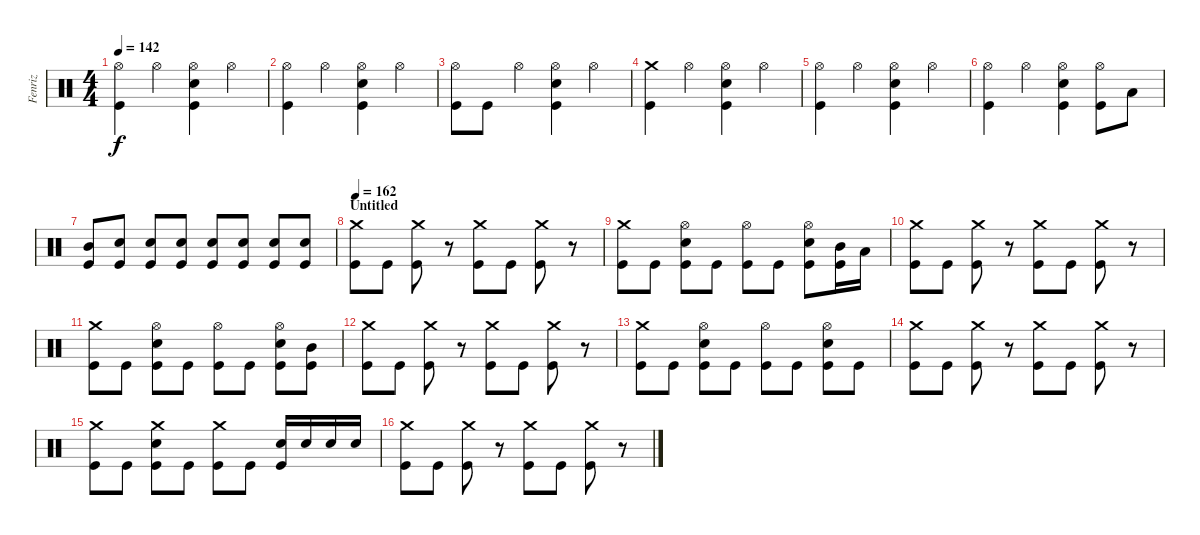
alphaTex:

\track ("Fenriz" "Fenriz") {instrument percussion}
\staff {score}
\articulation defaults
\ts (4 4)
\tempo 142
\clef neutral
\ks c
("Hi-Hat (open)" "Kick (hit)").4{dy f} "Hi-Hat (open)".4 ("Electric Snare (hit)" "Hi-Hat (open)" "Kick (hit)").4 "Hi-Hat (open)".4 |
("Hi-Hat (open)" "Kick (hit)").4 "Hi-Hat (open)".4 ("Electric Snare (hit)" "Hi-Hat (open)" "Kick (hit)").4 "Hi-Hat (open)".4 |
("Hi-Hat (open)" "Kick (hit)").8 "Kick (hit)".8 "Hi-Hat (open)".4 ("Electric Snare (hit)" "Hi-Hat (open)" "Kick (hit)").4 "Hi-Hat (open)".4 |
("Crash medium (hit)" "Kick (hit)").4 "Hi-Hat (open)".4 ("Electric Snare (hit)" "Hi-Hat (open)" "Kick (hit)").4 "Hi-Hat (open)".4 |
("Hi-Hat (open)" "Kick (hit)").4 "Hi-Hat (open)".4 ("Electric Snare (hit)" "Hi-Hat (open)" "Kick (hit)").4 "Hi-Hat (open)".4 |
("Hi-Hat (open)" "Kick (hit)").4 "Hi-Hat (open)".4 ("Electric Snare (hit)" "Hi-Hat (open)" "Kick (hit)").4 ("Hi-Hat (open)" "Kick (hit)").8 "Low Tom (hit)".8 |
("Mid Tom (hit)" "Kick (hit)").8 ("Electric Snare (hit)" "Kick (hit)").8 ("Electric Snare (hit)" "Kick (hit)").8 ("Electric Snare (hit)" "Kick (hit)").8 ("Electric Snare (hit)" "Kick (hit)").8 ("Electric Snare (hit)" "Kick (hit)").8 ("Electric Snare (hit)" "Kick (hit)").8 ("Electric Snare (hit)" "Kick (hit)").8 |
\section ("" "Untitled")
\tempo 162
("Crash medium (hit)" "Kick (hit)").8 "Kick (hit)".8 ("Crash medium (hit)" "Kick (hit)").8 r.8 ("Crash medium (hit)" "Kick (hit)").8 "Kick (hit)".8 ("Crash medium (hit)" "Kick (hit)").8 r.8 |
("Crash medium (hit)" "Kick (hit)").8 "Kick (hit)".8 ("Hi-Hat (open)" "Electric Snare (hit)" "Kick (hit)").8 "Kick (hit)".8 ("Hi-Hat (open)" "Kick (hit)").8 "Kick (hit)".8 ("Hi-Hat (open)" "Electric Snare (hit)" "Kick (hit)").8 ("Mid Tom (hit)" "Kick (hit)").16 "Low Tom (hit)".16 |
("Crash medium (hit)" "Kick (hit)").8 "Kick (hit)".8 ("Crash medium (hit)" "Kick (hit)").8 r.8 ("Crash medium (hit)" "Kick (hit)").8 "Kick (hit)".8 ("Crash medium (hit)" "Kick (hit)").8 r.8 |
("Crash medium (hit)" "Kick (hit)").8 "Kick (hit)".8 ("Hi-Hat (open)" "Electric Snare (hit)" "Kick (hit)").8 "Kick (hit)".8 ("Hi-Hat (open)" "Kick (hit)").8 "Kick (hit)".8 ("Hi-Hat (open)" "Electric Snare (hit)" "Kick (hit)").8 ("Mid Tom (hit)" "Kick (hit)").8 |
("Crash medium (hit)" "Kick (hit)").8 "Kick (hit)".8 ("Crash medium (hit)" "Kick (hit)").8 r.8 ("Crash medium (hit)" "Kick (hit)").8 "Kick (hit)".8 ("Crash medium (hit)" "Kick (hit)").8 r.8 |
("Crash medium (hit)" "Kick (hit)").8 "Kick (hit)".8 ("Hi-Hat (open)" "Electric Snare (hit)" "Kick (hit)").8 "Kick (hit)".8 ("Hi-Hat (open)" "Kick (hit)").8 "Kick (hit)".8 ("Hi-Hat (open)" "Electric Snare (hit)" "Kick (hit)").8 "Kick (hit)".8 |
("Crash medium (hit)" "Kick (hit)").8 "Kick (hit)".8 ("Crash medium (hit)" "Kick (hit)").8 r.8 ("Crash medium (hit)" "Kick (hit)").8 "Kick (hit)".8 ("Crash medium (hit)" "Kick (hit)").8 r.8 |
("Crash medium (hit)" "Kick (hit)").8 "Kick (hit)".8 ("Crash medium (hit)" "Electric Snare (hit)" "Kick (hit)").8 "Kick (hit)".8 ("Crash medium (hit)" "Kick (hit)").8 "Kick (hit)".8 ("Electric Snare (hit)" "Kick (hit)").16 "Electric Snare (hit)".16 "Electric Snare (hit)".16 "Electric Snare (hit)".16 |
("Crash medium (hit)" "Kick (hit)").8 "Kick (hit)".8 ("Crash medium (hit)" "Kick (hit)").8 r.8 ("Crash medium (hit)" "Kick (hit)").8 "Kick (hit)".8 ("Crash medium (hit)" "Kick (hit)").8 r.8
